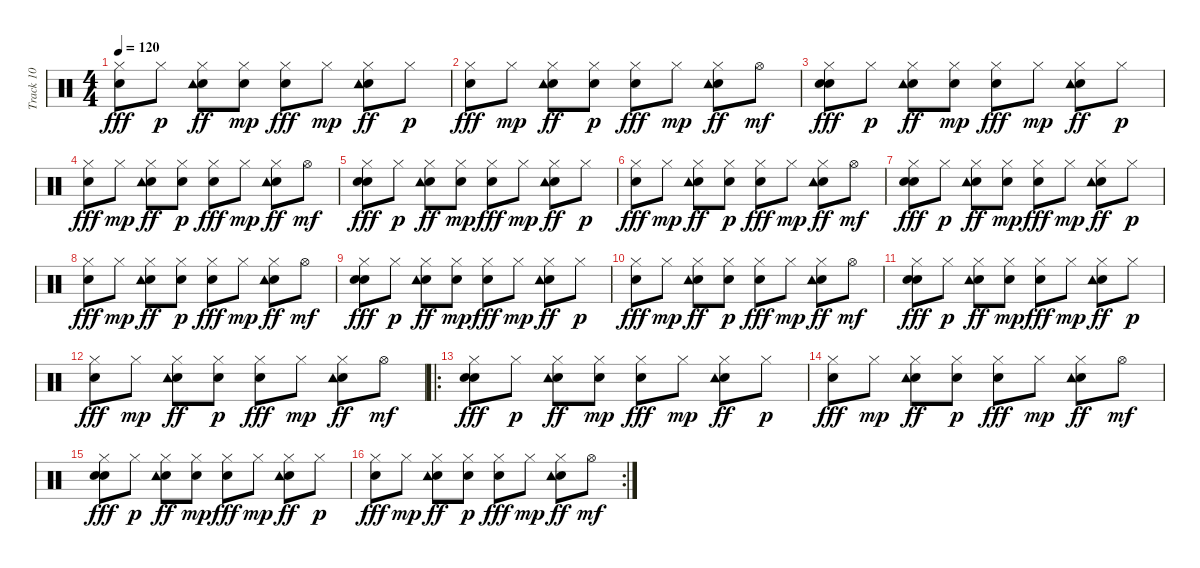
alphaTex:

\track ("Track 10" "Track 10") {instrument percussion}
\staff {score}
\articulation defaults
\ts (4 4)
\tempo 120
\clef neutral
\ks c
("Hi-Hat (closed)" "Snare (hit)").8{dy fff} "Hi-Hat (closed)".8{dy p} ("Snare (hit) 2" "Hi-Hat (closed)" "Tambourine (hit)").8{dy ff} ("Snare (hit)" "Hi-Hat (closed)").8{dy mp} ("Snare (hit)" "Hi-Hat (closed)").8{dy fff} "Hi-Hat (closed)".8{dy mp} ("Snare (hit) 2" "Hi-Hat (closed)" "Tambourine (hit)").8{dy ff} "Hi-Hat (closed)".8{dy p} |
("Snare (hit)" "Hi-Hat (closed)").8{dy fff} "Hi-Hat (closed)".8{dy mp} ("Snare (hit) 2" "Hi-Hat (closed)" "Tambourine (hit)").8{dy ff} ("Snare (hit)" "Hi-Hat (closed)").8{dy p} ("Snare (hit)" "Hi-Hat (closed)").8{dy fff} "Hi-Hat (closed)".8{dy mp} ("Hi-Hat (closed)" "Snare (hit) 2" "Tambourine (hit)").8{dy ff} "Hi-Hat (open)".8{dy mf} |
("Snare (hit)" "Hi-Hat (closed)" "Snare (hit)").8{dy fff} "Hi-Hat (closed)".8{dy p} ("Snare (hit) 2" "Hi-Hat (closed)" "Tambourine (hit)").8{dy ff} ("Snare (hit)" "Hi-Hat (closed)").8{dy mp} ("Snare (hit)" "Hi-Hat (closed)").8{dy fff} "Hi-Hat (closed)".8{dy mp} ("Snare (hit) 2" "Hi-Hat (closed)" "Tambourine (hit)").8{dy ff} "Hi-Hat (closed)".8{dy p} |
("Snare (hit)" "Hi-Hat (closed)").8{dy fff} "Hi-Hat (closed)".8{dy mp} ("Snare (hit) 2" "Hi-Hat (closed)" "Tambourine (hit)").8{dy ff} ("Snare (hit)" "Hi-Hat (closed)").8{dy p} ("Snare (hit)" "Hi-Hat (closed)").8{dy fff} "Hi-Hat (closed)".8{dy mp} ("Hi-Hat (closed)" "Snare (hit) 2" "Tambourine (hit)").8{dy ff} "Hi-Hat (open)".8{dy mf} |
("Snare (hit)" "Hi-Hat (closed)" "Snare (hit)").8{dy fff} "Hi-Hat (closed)".8{dy p} ("Snare (hit) 2" "Hi-Hat (closed)" "Tambourine (hit)").8{dy ff} ("Snare (hit)" "Hi-Hat (closed)").8{dy mp} ("Snare (hit)" "Hi-Hat (closed)").8{dy fff} "Hi-Hat (closed)".8{dy mp} ("Snare (hit) 2" "Hi-Hat (closed)" "Tambourine (hit)").8{dy ff} "Hi-Hat (closed)".8{dy p} |
("Snare (hit)" "Hi-Hat (closed)").8{dy fff} "Hi-Hat (closed)".8{dy mp} ("Snare (hit) 2" "Hi-Hat (closed)" "Tambourine (hit)").8{dy ff} ("Snare (hit)" "Hi-Hat (closed)").8{dy p} ("Snare (hit)" "Hi-Hat (closed)").8{dy fff} "Hi-Hat (closed)".8{dy mp} ("Hi-Hat (closed)" "Snare (hit) 2" "Tambourine (hit)").8{dy ff} "Hi-Hat (open)".8{dy mf} |
("Snare (hit)" "Hi-Hat (closed)" "Snare (hit)").8{dy fff} "Hi-Hat (closed)".8{dy p} ("Snare (hit) 2" "Hi-Hat (closed)" "Tambourine (hit)").8{dy ff} ("Snare (hit)" "Hi-Hat (closed)").8{dy mp} ("Snare (hit)" "Hi-Hat (closed)").8{dy fff} "Hi-Hat (closed)".8{dy mp} ("Snare (hit) 2" "Hi-Hat (closed)" "Tambourine (hit)").8{dy ff} "Hi-Hat (closed)".8{dy p} |
("Snare (hit)" "Hi-Hat (closed)").8{dy fff} "Hi-Hat (closed)".8{dy mp} ("Snare (hit) 2" "Hi-Hat (closed)" "Tambourine (hit)").8{dy ff} ("Snare (hit)" "Hi-Hat (closed)").8{dy p} ("Snare (hit)" "Hi-Hat (closed)").8{dy fff} "Hi-Hat (closed)".8{dy mp} ("Hi-Hat (closed)" "Snare (hit) 2" "Tambourine (hit)").8{dy ff} "Hi-Hat (open)".8{dy mf} |
("Snare (hit)" "Hi-Hat (closed)" "Snare (hit)").8{dy fff} "Hi-Hat (closed)".8{dy p} ("Snare (hit) 2" "Hi-Hat (closed)" "Tambourine (hit)").8{dy ff} ("Snare (hit)" "Hi-Hat (closed)").8{dy mp} ("Snare (hit)" "Hi-Hat (closed)").8{dy fff} "Hi-Hat (closed)".8{dy mp} ("Snare (hit) 2" "Hi-Hat (closed)" "Tambourine (hit)").8{dy ff} "Hi-Hat (closed)".8{dy p} |
("Snare (hit)" "Hi-Hat (closed)").8{dy fff} "Hi-Hat (closed)".8{dy mp} ("Snare (hit) 2" "Hi-Hat (closed)" "Tambourine (hit)").8{dy ff} ("Snare (hit)" "Hi-Hat (closed)").8{dy p} ("Snare (hit)" "Hi-Hat (closed)").8{dy fff} "Hi-Hat (closed)".8{dy mp} ("Hi-Hat (closed)" "Snare (hit) 2" "Tambourine (hit)").8{dy ff} "Hi-Hat (open)".8{dy mf} |
("Snare (hit)" "Hi-Hat (closed)" "Snare (hit)").8{dy fff} "Hi-Hat (closed)".8{dy p} ("Snare (hit) 2" "Hi-Hat (closed)" "Tambourine (hit)").8{dy ff} ("Snare (hit)" "Hi-Hat (closed)").8{dy mp} ("Snare (hit)" "Hi-Hat (closed)").8{dy fff} "Hi-Hat (closed)".8{dy mp} ("Snare (hit) 2" "Hi-Hat (closed)" "Tambourine (hit)").8{dy ff} "Hi-Hat (closed)".8{dy p} |
("Snare (hit)" "Hi-Hat (closed)").8{dy fff} "Hi-Hat (closed)".8{dy mp} ("Snare (hit) 2" "Hi-Hat (closed)" "Tambourine (hit)").8{dy ff} ("Snare (hit)" "Hi-Hat (closed)").8{dy p} ("Snare (hit)" "Hi-Hat (closed)").8{dy fff} "Hi-Hat (closed)".8{dy mp} ("Hi-Hat (closed)" "Snare (hit) 2" "Tambourine (hit)").8{dy ff} "Hi-Hat (open)".8{dy mf} |
\ro
("Snare (hit)" "Hi-Hat (closed)" "Snare (hit)").8{dy fff} "Hi-Hat (closed)".8{dy p} ("Snare (hit) 2" "Hi-Hat (closed)" "Tambourine (hit)").8{dy ff} ("Snare (hit)" "Hi-Hat (closed)").8{dy mp} ("Snare (hit)" "Hi-Hat (closed)").8{dy fff} "Hi-Hat (closed)".8{dy mp} ("Snare (hit) 2" "Hi-Hat (closed)" "Tambourine (hit)").8{dy ff} "Hi-Hat (closed)".8{dy p} |
("Snare (hit)" "Hi-Hat (closed)").8{dy fff} "Hi-Hat (closed)".8{dy mp} ("Snare (hit) 2" "Hi-Hat (closed)" "Tambourine (hit)").8{dy ff} ("Snare (hit)" "Hi-Hat (closed)").8{dy p} ("Snare (hit)" "Hi-Hat (closed)").8{dy fff} "Hi-Hat (closed)".8{dy mp} ("Hi-Hat (closed)" "Snare (hit) 2" "Tambourine (hit)").8{dy ff} "Hi-Hat (open)".8{dy mf} |
("Snare (hit)" "Hi-Hat (closed)" "Snare (hit)").8{dy fff} "Hi-Hat (closed)".8{dy p} ("Snare (hit) 2" "Hi-Hat (closed)" "Tambourine (hit)").8{dy ff} ("Snare (hit)" "Hi-Hat (closed)").8{dy mp} ("Snare (hit)" "Hi-Hat (closed)").8{dy fff} "Hi-Hat (closed)".8{dy mp} ("Snare (hit) 2" "Hi-Hat (closed)" "Tambourine (hit)").8{dy ff} "Hi-Hat (closed)".8{dy p} |
\rc 2
("Snare (hit)" "Hi-Hat (closed)").8{dy fff} "Hi-Hat (closed)".8{dy mp} ("Snare (hit) 2" "Hi-Hat (closed)" "Tambourine (hit)").8{dy ff} ("Snare (hit)" "Hi-Hat (closed)").8{dy p} ("Snare (hit)" "Hi-Hat (closed)").8{dy fff} "Hi-Hat (closed)".8{dy mp} ("Hi-Hat (closed)" "Snare (hit) 2" "Tambourine (hit)").8{dy ff} "Hi-Hat (open)".8{dy mf}
